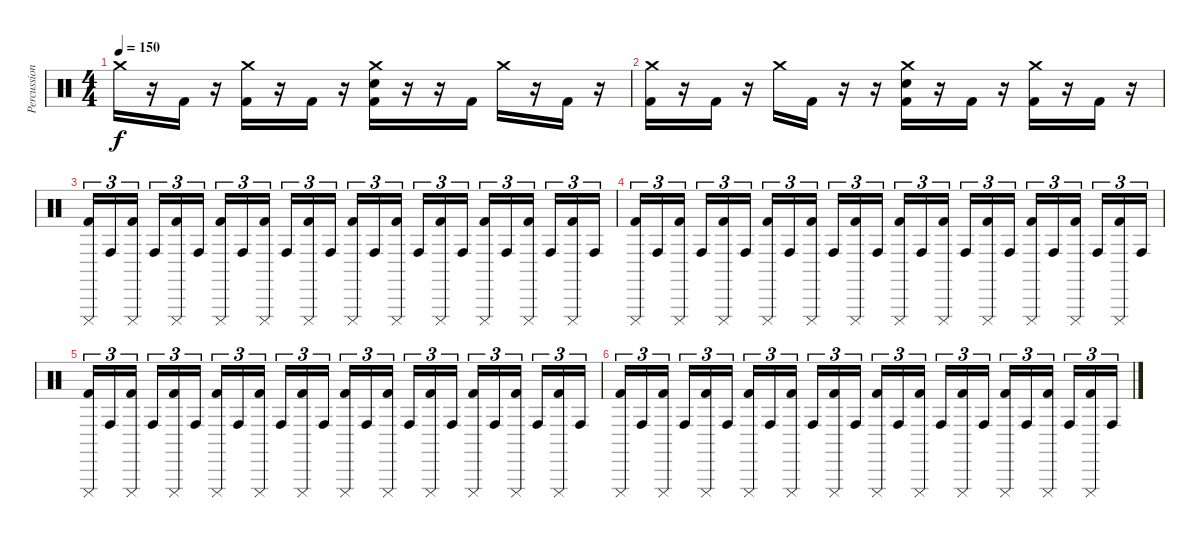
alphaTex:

\track ("Percussion" "Percussion") {instrument percussion}
\staff {score}
\articulation defaults
\ts (4 4)
\tempo 150
\clef neutral
\ks c "Crash medium (hit)".16{dy f}
r.16 "Kick (hit) 2".16 r.16 ("Crash medium (hit)" "Kick (hit) 2").16 r.16 "Kick (hit) 2".16 r.16 ("Crash medium (hit)" "Electric Snare (hit)" "Kick (hit) 2").16 r.16 r.16 "Kick (hit) 2".16 "Crash medium (hit)".16 r.16 "Kick (hit) 2".16 r.16 |
("Crash medium (hit)" "Kick (hit) 2").16 r.16 "Kick (hit) 2".16 r.16 "Crash medium (hit)".16 "Kick (hit) 2".16 r.16 r.16 ("Crash medium (hit)" "Electric Snare (hit)" "Kick (hit) 2").16 r.16 "Kick (hit) 2".16 r.16 ("Crash medium (hit)" "Kick (hit) 2").16 r.16 "Kick (hit) 2".16 r.16 |
("Cuica (mute)" "Kick (hit) 2").16{tu (3 2)} "Conga high (hit)".16{tu (3 2)} ("Cuica (mute)" "Kick (hit) 2").16{tu (3 2) beam splitsecondary} "Conga high (hit)".16{tu (3 2)} ("Cuica (mute)" "Kick (hit) 2").16{tu (3 2)} "Conga high (hit)".16{tu (3 2)} ("Cuica (mute)" "Kick (hit) 2").16{tu (3 2)} "Conga high (hit)".16{tu (3 2)} ("Cuica (mute)" "Kick (hit) 2").16{tu (3 2) beam splitsecondary} "Conga high (hit)".16{tu (3 2)} ("Cuica (mute)" "Kick (hit) 2").16{tu (3 2)} "Conga high (hit)".16{tu (3 2)} ("Cuica (mute)" "Kick (hit) 2").16{tu (3 2)} "Conga high (hit)".16{tu (3 2)} ("Cuica (mute)" "Kick (hit) 2").16{tu (3 2) beam splitsecondary} "Conga high (hit)".16{tu (3 2)} ("Cuica (mute)" "Kick (hit) 2").16{tu (3 2)} "Conga high (hit)".16{tu (3 2)} ("Cuica (mute)" "Kick (hit) 2").16{tu (3 2)} "Conga high (hit)".16{tu (3 2)} ("Cuica (mute)" "Kick (hit) 2").16{tu (3 2) beam splitsecondary} "Conga high (hit)".16{tu (3 2)} ("Cuica (mute)" "Kick (hit) 2").16{tu (3 2)} "Conga high (hit)".16{tu (3 2)} |
("Cuica (mute)" "Kick (hit) 2").16{tu (3 2)} "Conga high (hit)".16{tu (3 2)} ("Cuica (mute)" "Kick (hit) 2").16{tu (3 2) beam splitsecondary} "Conga high (hit)".16{tu (3 2)} ("Cuica (mute)" "Kick (hit) 2").16{tu (3 2)} "Conga high (hit)".16{tu (3 2)} ("Cuica (mute)" "Kick (hit) 2").16{tu (3 2)} "Conga high (hit)".16{tu (3 2)} ("Cuica (mute)" "Kick (hit) 2").16{tu (3 2) beam splitsecondary} "Conga high (hit)".16{tu (3 2)} ("Cuica (mute)" "Kick (hit) 2").16{tu (3 2)} "Conga high (hit)".16{tu (3 2)} ("Cuica (mute)" "Kick (hit) 2").16{tu (3 2)} "Conga high (hit)".16{tu (3 2)} ("Cuica (mute)" "Kick (hit) 2").16{tu (3 2) beam splitsecondary} "Conga high (hit)".16{tu (3 2)} ("Cuica (mute)" "Kick (hit) 2").16{tu (3 2)} "Conga high (hit)".16{tu (3 2)} ("Cuica (mute)" "Kick (hit) 2").16{tu (3 2)} "Conga high (hit)".16{tu (3 2)} ("Cuica (mute)" "Kick (hit) 2").16{tu (3 2) beam splitsecondary} "Conga high (hit)".16{tu (3 2)} ("Cuica (mute)" "Kick (hit) 2").16{tu (3 2)} "Conga high (hit)".16{tu (3 2)} |
("Cuica (mute)" "Kick (hit) 2").16{tu (3 2)} "Conga high (hit)".16{tu (3 2)} ("Cuica (mute)" "Kick (hit) 2").16{tu (3 2) beam splitsecondary} "Conga high (hit)".16{tu (3 2)} ("Cuica (mute)" "Kick (hit) 2").16{tu (3 2)} "Conga high (hit)".16{tu (3 2)} ("Cuica (mute)" "Kick (hit) 2").16{tu (3 2)} "Conga high (hit)".16{tu (3 2)} ("Cuica (mute)" "Kick (hit) 2").16{tu (3 2) beam splitsecondary} "Conga high (hit)".16{tu (3 2)} ("Cuica (mute)" "Kick (hit) 2").16{tu (3 2)} "Conga high (hit)".16{tu (3 2)} ("Cuica (mute)" "Kick (hit) 2").16{tu (3 2)} "Conga high (hit)".16{tu (3 2)} ("Cuica (mute)" "Kick (hit) 2").16{tu (3 2) beam splitsecondary} "Conga high (hit)".16{tu (3 2)} ("Cuica (mute)" "Kick (hit) 2").16{tu (3 2)} "Conga high (hit)".16{tu (3 2)} ("Cuica (mute)" "Kick (hit) 2").16{tu (3 2)} "Conga high (hit)".16{tu (3 2)} ("Cuica (mute)" "Kick (hit) 2").16{tu (3 2) beam splitsecondary} "Conga high (hit)".16{tu (3 2)} ("Cuica (mute)" "Kick (hit) 2").16{tu (3 2)} "Conga high (hit)".16{tu (3 2)} |
("Cuica (mute)" "Kick (hit) 2").16{tu (3 2)} "Conga high (hit)".16{tu (3 2)} ("Cuica (mute)" "Kick (hit) 2").16{tu (3 2) beam splitsecondary} "Conga high (hit)".16{tu (3 2)} ("Cuica (mute)" "Kick (hit) 2").16{tu (3 2)} "Conga high (hit)".16{tu (3 2)} ("Cuica (mute)" "Kick (hit) 2").16{tu (3 2)} "Conga high (hit)".16{tu (3 2)} ("Cuica (mute)" "Kick (hit) 2").16{tu (3 2) beam splitsecondary} "Conga high (hit)".16{tu (3 2)} ("Cuica (mute)" "Kick (hit) 2").16{tu (3 2)} "Conga high (hit)".16{tu (3 2)} ("Cuica (mute)" "Kick (hit) 2").16{tu (3 2)} "Conga high (hit)".16{tu (3 2)} ("Cuica (mute)" "Kick (hit) 2").16{tu (3 2) beam splitsecondary} "Conga high (hit)".16{tu (3 2)} ("Cuica (mute)" "Kick (hit) 2").16{tu (3 2)} "Conga high (hit)".16{tu (3 2)} ("Cuica (mute)" "Kick (hit) 2").16{tu (3 2)} "Conga high (hit)".16{tu (3 2)} ("Cuica (mute)" "Kick (hit) 2").16{tu (3 2) beam splitsecondary} "Conga high (hit)".16{tu (3 2)} ("Cuica (mute)" "Kick (hit) 2").16{tu (3 2)} "Conga high (hit)".16{tu (3 2)}
